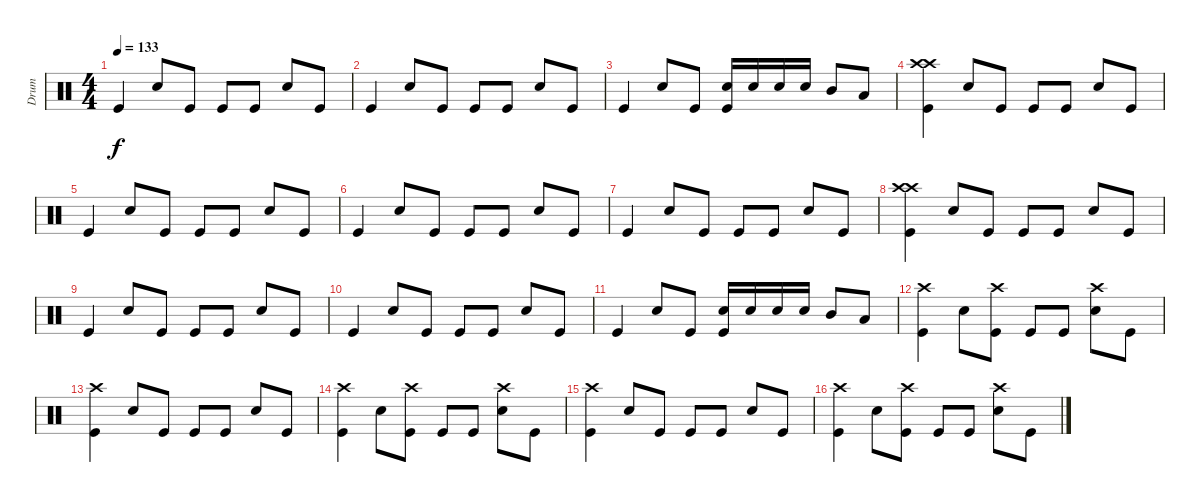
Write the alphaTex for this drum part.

\track ("Drum" "Drum") {instrument percussion}
\staff {score}
\articulation defaults
\ts (4 4)
\tempo 133
\clef neutral
\ks c "Kick (hit)".4{dy f} "Snare (hit) 2".8 "Kick (hit)".8 "Kick (hit)".8 "Kick (hit)".8 "Snare (hit) 2".8 "Kick (hit)".8
|
"Kick (hit)".4 "Snare (hit) 2".8 "Kick (hit)".8 "Kick (hit)".8 "Kick (hit)".8 "Snare (hit) 2".8 "Kick (hit)".8 |
"Kick (hit)".4 "Snare (hit) 2".8 "Kick (hit)".8 ("Snare (hit) 2" "Kick (hit)").16 "Snare (hit) 2".16 "Snare (hit) 2".16 "Snare (hit) 2".16 "Mid Tom (hit)".8 "Low Tom (hit)".8 |
("Crash high (hit)" "Crash high (hit)" "Kick (hit)").4 "Snare (hit) 2".8 "Kick (hit)".8 "Kick (hit)".8 "Kick (hit)".8 "Snare (hit) 2".8 "Kick (hit)".8 |
"Kick (hit)".4 "Snare (hit) 2".8 "Kick (hit)".8 "Kick (hit)".8 "Kick (hit)".8 "Snare (hit) 2".8 "Kick (hit)".8 |
"Kick (hit)".4 "Snare (hit) 2".8 "Kick (hit)".8 "Kick (hit)".8 "Kick (hit)".8 "Snare (hit) 2".8 "Kick (hit)".8 |
"Kick (hit)".4 "Snare (hit) 2".8 "Kick (hit)".8 "Kick (hit)".8 "Kick (hit)".8 "Snare (hit) 2".8 "Kick (hit)".8 |
("Crash high (hit)" "Crash high (hit)" "Kick (hit)").4 "Snare (hit) 2".8 "Kick (hit)".8 "Kick (hit)".8 "Kick (hit)".8 "Snare (hit) 2".8 "Kick (hit)".8 |
"Kick (hit)".4 "Snare (hit) 2".8 "Kick (hit)".8 "Kick (hit)".8 "Kick (hit)".8 "Snare (hit) 2".8 "Kick (hit)".8 |
"Kick (hit)".4 "Snare (hit) 2".8 "Kick (hit)".8 "Kick (hit)".8 "Kick (hit)".8 "Snare (hit) 2".8 "Kick (hit)".8 |
"Kick (hit)".4 "Snare (hit) 2".8 "Kick (hit)".8 ("Snare (hit) 2" "Kick (hit)").16 "Snare (hit) 2".16 "Snare (hit) 2".16 "Snare (hit) 2".16 "Mid Tom (hit)".8 "Low Tom (hit)".8 |
("Crash high (hit)" "Kick (hit)").4 "Snare (hit) 2".8 ("Crash high (hit)" "Kick (hit)").8 "Kick (hit)".8 "Kick (hit)".8 ("Crash high (hit)" "Snare (hit) 2").8 "Kick (hit)".8 |
("Crash high (hit)" "Kick (hit)").4 "Snare (hit) 2".8 "Kick (hit)".8 "Kick (hit)".8 "Kick (hit)".8 "Snare (hit) 2".8 "Kick (hit)".8 |
("Crash high (hit)" "Kick (hit)").4 "Snare (hit) 2".8 ("Crash high (hit)" "Kick (hit)").8 "Kick (hit)".8 "Kick (hit)".8 ("Crash high (hit)" "Snare (hit) 2").8 "Kick (hit)".8 |
("Crash high (hit)" "Kick (hit)").4 "Snare (hit) 2".8 "Kick (hit)".8 "Kick (hit)".8 "Kick (hit)".8 "Snare (hit) 2".8 "Kick (hit)".8 |
("Crash high (hit)" "Kick (hit)").4 "Snare (hit) 2".8 ("Crash high (hit)" "Kick (hit)").8 "Kick (hit)".8 "Kick (hit)".8 ("Crash high (hit)" "Snare (hit) 2").8 "Kick (hit)".8
